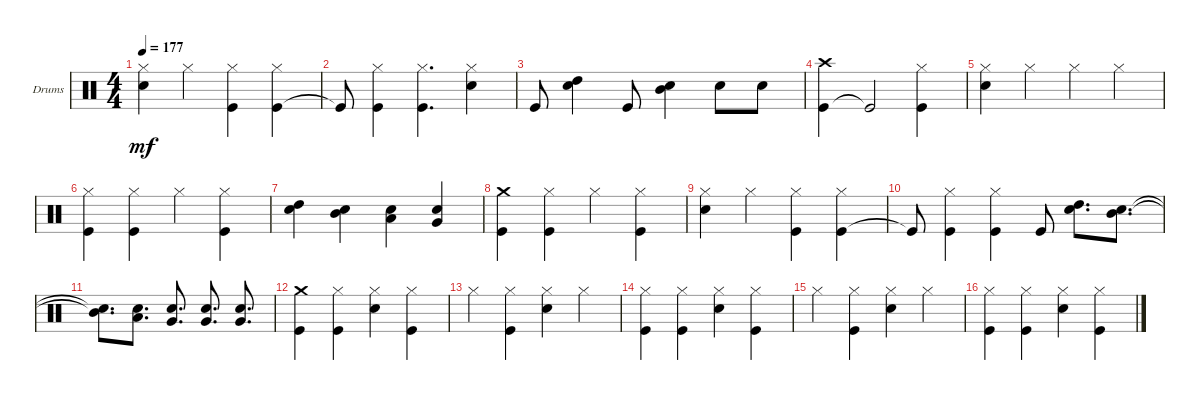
\defaultSystemsLayout 4
\bracketExtendMode groupsimilarinstruments
\firstSystemTrackNameOrientation horizontal
\otherSystemsTrackNameOrientation horizontal
\track ("Johnny Kelly" "Drums") {instrument percussion}
\staff {score}
\articulation defaults
\ts (4 4)
\tempo 177
\clef neutral
\ks c
("Snare (hit) 2" "Hi-Hat (closed)").4{dy mf} "Hi-Hat (closed)".4 ("Kick (hit)" "Hi-Hat (closed)").4 ("Kick (hit)" "Hi-Hat (closed)").4 |
"Kick (hit)"{t}.8 ("Kick (hit)" "Hi-Hat (closed)").4 ("Kick (hit)" "Hi-Hat (closed)").4{d} ("Snare (hit) 2" "Hi-Hat (closed)").4 |
"Kick (hit)".8 ("Snare (hit) 2" "High Tom (hit)").4 "Kick (hit)".8 ("Snare (hit) 2" "Mid Tom (hit)").4 "Snare (hit) 2".8 "Snare (hit) 2".8 |
("Kick (hit)" "Crash high (hit)").4 "Kick (hit)"{t}.2 ("Kick (hit)" "Hi-Hat (closed)").4 |
("Snare (hit) 2" "Hi-Hat (closed)").4 "Hi-Hat (closed)".4 "Hi-Hat (closed)".4 "Hi-Hat (closed)".4 |
("Kick (hit)" "Hi-Hat (closed)").4 ("Kick (hit)" "Hi-Hat (closed)").4 "Hi-Hat (closed)".4 ("Kick (hit)" "Hi-Hat (closed)").4 |
("Snare (hit) 2" "High Tom (hit)").4 ("Snare (hit) 2" "Mid Tom (hit)").4 ("Snare (hit) 2" "Low Tom (hit)").4 ("Snare (hit) 2" "Very Low Tom (hit)").4 |
("Kick (hit)" "Crash medium (hit)").4 ("Kick (hit)" "Hi-Hat (closed)").4 "Hi-Hat (closed)".4 ("Kick (hit)" "Hi-Hat (closed)").4 |
("Snare (hit) 2" "Hi-Hat (closed)").4 "Hi-Hat (closed)".4 ("Kick (hit)" "Hi-Hat (closed)").4 ("Kick (hit)" "Hi-Hat (closed)").4 |
"Kick (hit)"{t}.8 ("Kick (hit)" "Hi-Hat (closed)").4 ("Kick (hit)" "Hi-Hat (closed)").4 "Kick (hit)".8 ("Snare (hit) 2" "High Tom (hit)").8{d} ("Snare (hit) 2" "Mid Tom (hit)").8{d} |
("Snare (hit) 2"{t} "Mid Tom (hit)"{t}).8{d} ("Snare (hit) 2" "Low Tom (hit)").8{d} ("Snare (hit) 2" "Very Low Tom (hit)").8{d} ("Snare (hit) 2" "Very Low Tom (hit)").8{d} ("Snare (hit) 2" "Very Low Tom (hit)").8{d} |
("Kick (hit)" "Crash medium (hit)").4 ("Kick (hit)" "Hi-Hat (closed)").4 ("Snare (hit) 2" "Hi-Hat (closed)").4 ("Kick (hit)" "Hi-Hat (closed)").4 |
"Hi-Hat (closed)".4 ("Kick (hit)" "Hi-Hat (closed)").4 ("Snare (hit) 2" "Hi-Hat (closed)").4 "Hi-Hat (closed)".4 |
("Kick (hit)" "Hi-Hat (closed)").4 ("Kick (hit)" "Hi-Hat (closed)").4 ("Snare (hit) 2" "Hi-Hat (closed)").4 ("Kick (hit)" "Hi-Hat (closed)").4 |
"Hi-Hat (closed)".4 ("Kick (hit)" "Hi-Hat (closed)").4 ("Snare (hit) 2" "Hi-Hat (closed)").4 "Hi-Hat (closed)".4 |
("Kick (hit)" "Hi-Hat (closed)").4 ("Kick (hit)" "Hi-Hat (closed)").4 ("Snare (hit) 2" "Hi-Hat (closed)").4 ("Kick (hit)" "Hi-Hat (closed)").4
